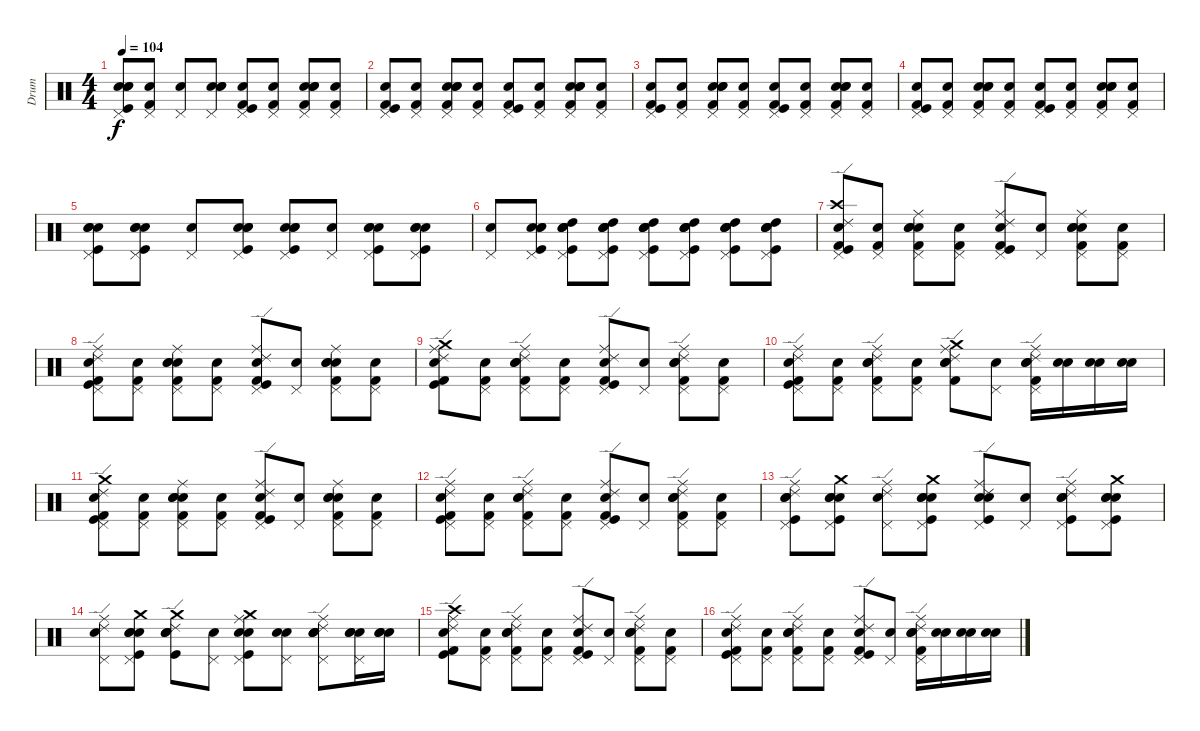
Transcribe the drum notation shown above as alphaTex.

\track ("Drum" "Drum") {instrument percussion}
\staff {score}
\articulation defaults
\ts (4 4)
\tempo 104
\clef neutral
\ks c
("Snare (hit)" "Kick (hit)" "Pedal Hi-Hat (hit)" "Snare (hit) 2" "Electric Snare (hit)").8{dy f} ("Snare (hit)" "Pedal Hi-Hat (hit)" "Kick (hit) 2").8 ("Snare (hit)" "Pedal Hi-Hat (hit)").8 ("Snare (hit)" "Pedal Hi-Hat (hit)" "Electric Snare (hit)" "Snare (hit) 2").8 ("Snare (hit)" "Kick (hit) 2" "Pedal Hi-Hat (hit)" "Kick (hit)").8 ("Snare (hit)" "Pedal Hi-Hat (hit)" "Kick (hit) 2").8 ("Snare (hit)" "Kick (hit) 2" "Snare (hit) 2" "Electric Snare (hit)" "Pedal Hi-Hat (hit)").8 ("Snare (hit)" "Pedal Hi-Hat (hit)" "Kick (hit) 2").8 |
("Snare (hit)" "Kick (hit) 2" "Pedal Hi-Hat (hit)" "Kick (hit)").8 ("Snare (hit)" "Pedal Hi-Hat (hit)" "Kick (hit) 2").8 ("Snare (hit)" "Kick (hit) 2" "Electric Snare (hit)" "Snare (hit) 2" "Pedal Hi-Hat (hit)").8 ("Snare (hit)" "Pedal Hi-Hat (hit)" "Kick (hit) 2").8 ("Snare (hit)" "Kick (hit) 2" "Pedal Hi-Hat (hit)" "Kick (hit)").8 ("Snare (hit)" "Pedal Hi-Hat (hit)" "Kick (hit) 2").8 ("Snare (hit)" "Kick (hit) 2" "Snare (hit) 2" "Electric Snare (hit)" "Pedal Hi-Hat (hit)").8 ("Snare (hit)" "Pedal Hi-Hat (hit)" "Kick (hit) 2").8 |
("Snare (hit)" "Kick (hit)" "Pedal Hi-Hat (hit)" "Kick (hit) 2").8 ("Snare (hit)" "Kick (hit) 2" "Pedal Hi-Hat (hit)").8 ("Snare (hit)" "Pedal Hi-Hat (hit)" "Snare (hit) 2" "Electric Snare (hit)" "Kick (hit) 2").8 ("Snare (hit)" "Kick (hit) 2" "Pedal Hi-Hat (hit)").8 ("Snare (hit)" "Kick (hit) 2" "Pedal Hi-Hat (hit)" "Kick (hit)").8 ("Snare (hit)" "Kick (hit) 2" "Pedal Hi-Hat (hit)").8 ("Snare (hit)" "Pedal Hi-Hat (hit)" "Electric Snare (hit)" "Snare (hit) 2" "Kick (hit) 2").8 ("Snare (hit)" "Kick (hit) 2" "Pedal Hi-Hat (hit)").8 |
("Snare (hit)" "Kick (hit) 2" "Pedal Hi-Hat (hit)" "Kick (hit)").8 ("Snare (hit)" "Kick (hit) 2" "Pedal Hi-Hat (hit)").8 ("Snare (hit)" "Pedal Hi-Hat (hit)" "Snare (hit) 2" "Electric Snare (hit)" "Kick (hit) 2").8 ("Snare (hit)" "Kick (hit) 2" "Pedal Hi-Hat (hit)").8 ("Snare (hit)" "Kick (hit) 2" "Pedal Hi-Hat (hit)" "Kick (hit)").8 ("Snare (hit)" "Kick (hit) 2" "Pedal Hi-Hat (hit)").8 ("Snare (hit)" "Pedal Hi-Hat (hit)" "Electric Snare (hit)" "Snare (hit) 2" "Kick (hit) 2").8 ("Snare (hit)" "Kick (hit) 2" "Pedal Hi-Hat (hit)").8 |
("Snare (hit)" "Electric Snare (hit)" "Kick (hit)" "Snare (hit) 2" "Pedal Hi-Hat (hit)").8 ("Snare (hit)" "Electric Snare (hit)" "Snare (hit) 2" "Pedal Hi-Hat (hit)" "Kick (hit)").8 ("Snare (hit)" "Pedal Hi-Hat (hit)").8 ("Snare (hit)" "Electric Snare (hit)" "Kick (hit)" "Pedal Hi-Hat (hit)" "Snare (hit) 2").8 ("Snare (hit)" "Electric Snare (hit)" "Snare (hit) 2" "Pedal Hi-Hat (hit)" "Kick (hit)").8 ("Snare (hit)" "Pedal Hi-Hat (hit)").8 ("Snare (hit)" "Electric Snare (hit)" "Pedal Hi-Hat (hit)" "Kick (hit)" "Snare (hit) 2").8 ("Snare (hit)" "Electric Snare (hit)" "Kick (hit)" "Snare (hit) 2" "Pedal Hi-Hat (hit)").8 |
("Snare (hit)" "Pedal Hi-Hat (hit)").8 ("Snare (hit)" "Snare (hit) 2" "Kick (hit)" "Pedal Hi-Hat (hit)" "Electric Snare (hit)").8 ("Snare (hit)" "Pedal Hi-Hat (hit)" "Kick (hit)" "Snare (hit) 2" "High Tom (hit)" "Electric Snare (hit)").8 ("Snare (hit)" "Pedal Hi-Hat (hit)" "Snare (hit) 2" "Kick (hit)" "High Tom (hit)" "Electric Snare (hit)").8 ("Snare (hit)" "Snare (hit) 2" "Kick (hit)" "Pedal Hi-Hat (hit)" "High Tom (hit)" "Electric Snare (hit)").8 ("Snare (hit)" "Pedal Hi-Hat (hit)" "Snare (hit) 2" "Kick (hit)" "High Tom (hit)" "Electric Snare (hit)").8 ("Snare (hit)" "Pedal Hi-Hat (hit)" "Kick (hit)" "Snare (hit) 2" "High Tom (hit)" "Electric Snare (hit)").8 ("Snare (hit)" "Pedal Hi-Hat (hit)" "Snare (hit) 2" "Kick (hit)" "High Tom (hit)" "Electric Snare (hit)").8 |
("Snare (hit)" "Kick (hit)" "Pedal Hi-Hat (hit)" "Crash high (hit)" "Ride (edge) 2" "Kick (hit) 2").8 ("Snare (hit)" "Pedal Hi-Hat (hit)" "Kick (hit) 2").8 ("Snare (hit)" "Kick (hit) 2" "Electric Snare (hit)" "Snare (hit) 2" "Pedal Hi-Hat (hit)" "Ride (middle)").8 ("Snare (hit)" "Pedal Hi-Hat (hit)" "Kick (hit) 2").8 ("Snare (hit)" "Kick (hit)" "Pedal Hi-Hat (hit)" "Ride (edge) 2" "Ride (middle)" "Kick (hit) 2").8 ("Snare (hit)" "Pedal Hi-Hat (hit)").8 ("Snare (hit)" "Kick (hit) 2" "Snare (hit) 2" "Electric Snare (hit)" "Pedal Hi-Hat (hit)" "Ride (middle)").8 ("Snare (hit)" "Pedal Hi-Hat (hit)" "Kick (hit) 2").8 |
("Snare (hit)" "Kick (hit)" "Pedal Hi-Hat (hit)" "Ride (edge) 2" "Ride (middle)" "Kick (hit) 2").8 ("Snare (hit)" "Pedal Hi-Hat (hit)" "Kick (hit) 2").8 ("Snare (hit)" "Kick (hit) 2" "Electric Snare (hit)" "Snare (hit) 2" "Pedal Hi-Hat (hit)" "Ride (middle)").8 ("Snare (hit)" "Pedal Hi-Hat (hit)" "Kick (hit) 2").8 ("Snare (hit)" "Kick (hit)" "Pedal Hi-Hat (hit)" "Ride (edge) 2" "Ride (middle)" "Kick (hit) 2").8 ("Snare (hit)" "Pedal Hi-Hat (hit)").8 ("Snare (hit)" "Kick (hit) 2" "Snare (hit) 2" "Electric Snare (hit)" "Pedal Hi-Hat (hit)" "Ride (middle)").8 ("Snare (hit)" "Pedal Hi-Hat (hit)" "Kick (hit) 2").8 |
("Snare (hit)" "Kick (hit) 2" "Ride (middle)" "Ride (edge) 2" "Crash medium (hit)" "Kick (hit)").8 ("Snare (hit)" "Kick (hit) 2" "Pedal Hi-Hat (hit)").8 ("Snare (hit)" "Ride (middle)" "Ride (edge) 2" "Pedal Hi-Hat (hit)" "Snare (hit) 2" "Kick (hit) 2").8 ("Snare (hit)" "Kick (hit) 2" "Pedal Hi-Hat (hit)").8 ("Snare (hit)" "Kick (hit) 2" "Ride (middle)" "Ride (edge) 2" "Pedal Hi-Hat (hit)" "Kick (hit)").8 ("Snare (hit)" "Pedal Hi-Hat (hit)").8 ("Snare (hit)" "Ride (middle)" "Ride (edge) 2" "Pedal Hi-Hat (hit)" "Electric Snare (hit)" "Kick (hit) 2").8 ("Snare (hit)" "Kick (hit) 2" "Pedal Hi-Hat (hit)").8 |
("Snare (hit)" "Kick (hit) 2" "Ride (middle)" "Ride (edge) 2" "Kick (hit)" "Pedal Hi-Hat (hit)").8 ("Snare (hit)" "Kick (hit) 2" "Pedal Hi-Hat (hit)").8 ("Snare (hit)" "Ride (middle)" "Ride (edge) 2" "Kick (hit) 2" "Electric Snare (hit)" "Pedal Hi-Hat (hit)").8 ("Snare (hit)" "Kick (hit) 2" "Pedal Hi-Hat (hit)").8 ("Snare (hit)" "Crash medium (hit)" "Kick (hit) 2" "Ride (middle)" "Ride (edge) 2" "Snare (hit) 2").8 ("Snare (hit)" "Pedal Hi-Hat (hit)").8 ("Snare (hit)" "Ride (middle)" "Ride (edge) 2" "Kick (hit) 2" "Snare (hit) 2" "Pedal Hi-Hat (hit)").16 ("Snare (hit)" "Snare (hit) 2").16 ("Snare (hit)" "Snare (hit) 2").16 ("Snare (hit)" "Snare (hit) 2").16 |
("Snare (hit)" "Kick (hit)" "Pedal Hi-Hat (hit)" "Crash medium (hit)" "Ride (edge) 2" "Kick (hit) 2").8 ("Snare (hit)" "Pedal Hi-Hat (hit)" "Kick (hit) 2").8 ("Snare (hit)" "Kick (hit) 2" "Electric Snare (hit)" "Snare (hit) 2" "Pedal Hi-Hat (hit)" "Ride (middle)").8 ("Snare (hit)" "Pedal Hi-Hat (hit)" "Kick (hit) 2").8 ("Snare (hit)" "Kick (hit)" "Pedal Hi-Hat (hit)" "Ride (edge) 2" "Ride (middle)" "Kick (hit) 2").8 ("Snare (hit)" "Pedal Hi-Hat (hit)").8 ("Snare (hit)" "Kick (hit) 2" "Snare (hit) 2" "Electric Snare (hit)" "Pedal Hi-Hat (hit)" "Ride (middle)").8 ("Snare (hit)" "Pedal Hi-Hat (hit)" "Kick (hit) 2").8 |
("Snare (hit)" "Kick (hit) 2" "Ride (middle)" "Ride (edge) 2" "Pedal Hi-Hat (hit)" "Kick (hit)").8 ("Snare (hit)" "Kick (hit) 2" "Pedal Hi-Hat (hit)").8 ("Snare (hit)" "Ride (middle)" "Ride (edge) 2" "Pedal Hi-Hat (hit)" "Snare (hit) 2" "Kick (hit) 2").8 ("Snare (hit)" "Kick (hit) 2" "Pedal Hi-Hat (hit)").8 ("Snare (hit)" "Kick (hit) 2" "Ride (middle)" "Ride (edge) 2" "Pedal Hi-Hat (hit)" "Kick (hit)").8 ("Snare (hit)" "Pedal Hi-Hat (hit)").8 ("Snare (hit)" "Ride (middle)" "Ride (edge) 2" "Pedal Hi-Hat (hit)" "Electric Snare (hit)" "Kick (hit) 2").8 ("Snare (hit)" "Kick (hit) 2" "Pedal Hi-Hat (hit)").8 |
("Snare (hit)" "Kick (hit)" "Snare (hit) 2" "Pedal Hi-Hat (hit)" "Ride (edge) 2" "Ride (middle)").8 ("Snare (hit)" "Snare (hit) 2" "Pedal Hi-Hat (hit)" "Kick (hit)" "Crash medium (hit)" "Electric Snare (hit)").8 ("Snare (hit)" "Pedal Hi-Hat (hit)" "Ride (edge) 2" "Ride (middle)").8 ("Snare (hit)" "Kick (hit)" "Pedal Hi-Hat (hit)" "Snare (hit) 2" "Crash medium (hit)" "Electric Snare (hit)").8 ("Snare (hit)" "Snare (hit) 2" "Pedal Hi-Hat (hit)" "Kick (hit)" "Ride (edge) 2" "Ride (middle)").8 ("Snare (hit)" "Pedal Hi-Hat (hit)").8 ("Snare (hit)" "Pedal Hi-Hat (hit)" "Kick (hit)" "Snare (hit) 2" "Ride (edge) 2" "Ride (middle)").8 ("Snare (hit)" "Kick (hit)" "Snare (hit) 2" "Pedal Hi-Hat (hit)" "Crash medium (hit)" "Electric Snare (hit)").8 |
("Snare (hit)" "Ride (middle)" "Ride (edge) 2" "Pedal Hi-Hat (hit)").8 ("Snare (hit)" "Pedal Hi-Hat (hit)" "Snare (hit) 2" "Crash medium (hit)" "Electric Snare (hit)" "Kick (hit)").8 ("Snare (hit)" "Ride (edge) 2" "Kick (hit)" "Crash medium (hit)" "Snare (hit) 2" "Electric Snare (hit)").8 ("Snare (hit)" "Pedal Hi-Hat (hit)").8 ("Snare (hit)" "Crash medium (hit)" "Pedal Hi-Hat (hit)" "Snare (hit) 2" "Kick (hit)" "Ride (middle)").8 ("Snare (hit)" "Snare (hit) 2" "Pedal Hi-Hat (hit)").8 ("Snare (hit)" "Ride (middle)" "Ride (edge) 2" "Electric Snare (hit)" "Pedal Hi-Hat (hit)" "Snare (hit) 2").8 ("Snare (hit)" "Electric Snare (hit)" "Pedal Hi-Hat (hit)" "Snare (hit) 2").16 ("Snare (hit)" "Snare (hit) 2" "Electric Snare (hit)").16 |
("Snare (hit)" "Kick (hit) 2" "Ride (middle)" "Ride (edge) 2" "Crash high (hit)" "Kick (hit)").8 ("Snare (hit)" "Kick (hit) 2" "Pedal Hi-Hat (hit)").8 ("Snare (hit)" "Ride (middle)" "Ride (edge) 2" "Pedal Hi-Hat (hit)" "Snare (hit) 2" "Kick (hit) 2").8 ("Snare (hit)" "Kick (hit) 2" "Pedal Hi-Hat (hit)").8 ("Snare (hit)" "Kick (hit) 2" "Ride (middle)" "Ride (edge) 2" "Pedal Hi-Hat (hit)" "Kick (hit)").8 ("Snare (hit)" "Pedal Hi-Hat (hit)").8 ("Snare (hit)" "Ride (middle)" "Ride (edge) 2" "Pedal Hi-Hat (hit)" "Electric Snare (hit)" "Kick (hit) 2").8 ("Snare (hit)" "Kick (hit) 2" "Pedal Hi-Hat (hit)").8 |
("Snare (hit)" "Kick (hit) 2" "Ride (middle)" "Ride (edge) 2" "Kick (hit)" "Pedal Hi-Hat (hit)").8 ("Snare (hit)" "Kick (hit) 2" "Pedal Hi-Hat (hit)").8 ("Snare (hit)" "Ride (middle)" "Ride (edge) 2" "Kick (hit) 2" "Electric Snare (hit)" "Pedal Hi-Hat (hit)").8 ("Snare (hit)" "Kick (hit) 2" "Pedal Hi-Hat (hit)").8 ("Snare (hit)" "Kick (hit) 2" "Ride (middle)" "Ride (edge) 2" "Kick (hit)" "Pedal Hi-Hat (hit)").8 ("Snare (hit)" "Pedal Hi-Hat (hit)").8 ("Snare (hit)" "Ride (middle)" "Ride (edge) 2" "Kick (hit) 2" "Snare (hit) 2" "Pedal Hi-Hat (hit)").16 ("Snare (hit)" "Snare (hit) 2").16 ("Snare (hit)" "Snare (hit) 2").16 ("Snare (hit)" "Snare (hit) 2").16
